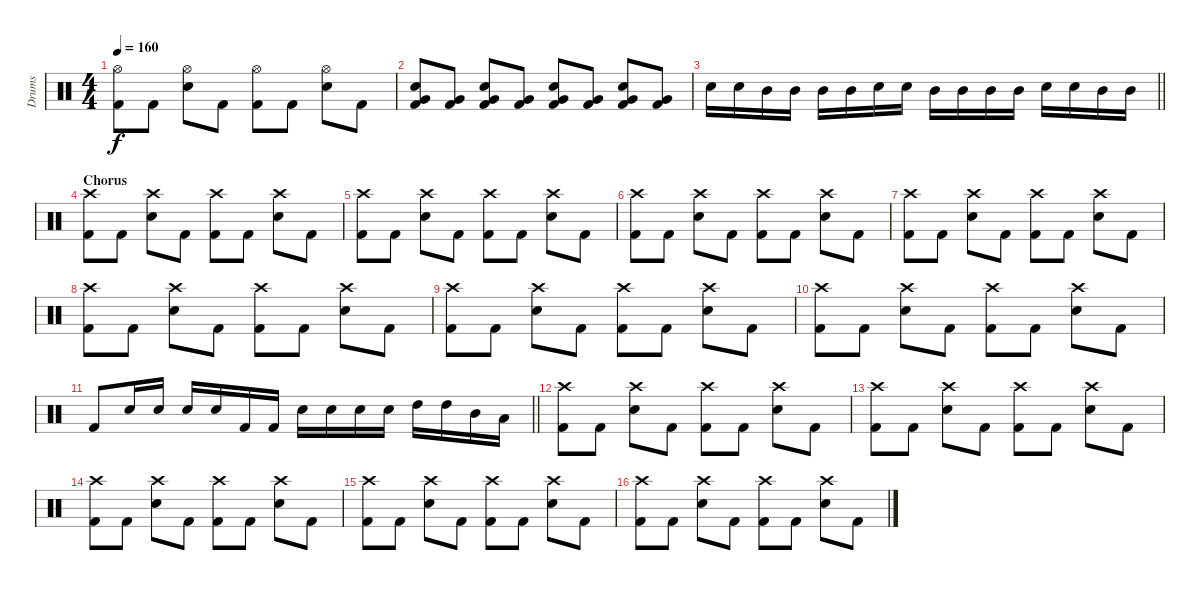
\track ("Drums" "Drums") {instrument percussion}
\staff {score}
\articulation defaults
\ts (4 4)
\tempo 160
\clef neutral
\ks c
("Hi-Hat (open)" "Kick (hit) 2").8{dy f} "Kick (hit) 2".8 ("Hi-Hat (open)" "Electric Snare (hit)").8 "Kick (hit) 2".8 ("Hi-Hat (open)" "Kick (hit) 2").8 "Kick (hit) 2".8 ("Hi-Hat (open)" "Electric Snare (hit)").8 "Kick (hit) 2".8 |
("Very Low Tom (hit)" "Electric Snare (hit)" "Kick (hit) 2").8 ("Very Low Tom (hit)" "Kick (hit) 2").8 ("Very Low Tom (hit)" "Electric Snare (hit)" "Kick (hit) 2").8 ("Very Low Tom (hit)" "Kick (hit) 2").8 ("Very Low Tom (hit)" "Electric Snare (hit)" "Kick (hit) 2").8 ("Very Low Tom (hit)" "Kick (hit) 2").8 ("Very Low Tom (hit)" "Electric Snare (hit)" "Kick (hit) 2").8 ("Very Low Tom (hit)" "Kick (hit) 2").8 |
\barLineRight lightlight "Electric Snare (hit)".16 "Electric Snare (hit)".16 "Mid Tom (hit)".16 "Mid Tom (hit)".16 "Mid Tom (hit)".16 "Mid Tom (hit)".16 "Electric Snare (hit)".16 "Electric Snare (hit)".16 "Mid Tom (hit)".16 "Mid Tom (hit)".16 "Mid Tom (hit)".16 "Mid Tom (hit)".16 "Electric Snare (hit)".16 "Electric Snare (hit)".16 "Mid Tom (hit)".16 "Mid Tom (hit)".16
|
\section ("" "Chorus")
("Crash high (hit)" "Kick (hit) 2").8 "Kick (hit) 2".8 ("Crash high (hit)" "Electric Snare (hit)").8 "Kick (hit) 2".8 ("Crash high (hit)" "Kick (hit) 2").8 "Kick (hit) 2".8 ("Crash high (hit)" "Electric Snare (hit)").8 "Kick (hit) 2".8 |
("Crash high (hit)" "Kick (hit) 2").8 "Kick (hit) 2".8 ("Crash high (hit)" "Electric Snare (hit)").8 "Kick (hit) 2".8 ("Crash high (hit)" "Kick (hit) 2").8 "Kick (hit) 2".8 ("Crash high (hit)" "Electric Snare (hit)").8 "Kick (hit) 2".8 |
("Crash high (hit)" "Kick (hit) 2").8 "Kick (hit) 2".8 ("Crash high (hit)" "Electric Snare (hit)").8 "Kick (hit) 2".8 ("Crash high (hit)" "Kick (hit) 2").8 "Kick (hit) 2".8 ("Crash high (hit)" "Electric Snare (hit)").8 "Kick (hit) 2".8 |
("Crash high (hit)" "Kick (hit) 2").8 "Kick (hit) 2".8 ("Crash high (hit)" "Electric Snare (hit)").8 "Kick (hit) 2".8 ("Crash high (hit)" "Kick (hit) 2").8 "Kick (hit) 2".8 ("Crash high (hit)" "Electric Snare (hit)").8 "Kick (hit) 2".8 |
("Crash high (hit)" "Kick (hit) 2").8 "Kick (hit) 2".8 ("Crash high (hit)" "Electric Snare (hit)").8 "Kick (hit) 2".8 ("Crash high (hit)" "Kick (hit) 2").8 "Kick (hit) 2".8 ("Crash high (hit)" "Electric Snare (hit)").8 "Kick (hit) 2".8 |
("Crash high (hit)" "Kick (hit) 2").8 "Kick (hit) 2".8 ("Crash high (hit)" "Electric Snare (hit)").8 "Kick (hit) 2".8 ("Crash high (hit)" "Kick (hit) 2").8 "Kick (hit) 2".8 ("Crash high (hit)" "Electric Snare (hit)").8 "Kick (hit) 2".8 |
("Crash high (hit)" "Kick (hit) 2").8 "Kick (hit) 2".8 ("Crash high (hit)" "Electric Snare (hit)").8 "Kick (hit) 2".8 ("Crash high (hit)" "Kick (hit) 2").8 "Kick (hit) 2".8 ("Crash high (hit)" "Electric Snare (hit)").8 "Kick (hit) 2".8 |
\barLineRight lightlight "Kick (hit) 2".8 "Electric Snare (hit)".16 "Electric Snare (hit)".16 "Electric Snare (hit)".16 "Electric Snare (hit)".16 "Kick (hit) 2".16 "Kick (hit) 2".16 "Electric Snare (hit)".16 "Electric Snare (hit)".16 "Electric Snare (hit)".16 "Electric Snare (hit)".16 "High Tom (hit)".16 "High Tom (hit)".16 "Mid Tom (hit)".16 "Low Tom (hit)".16
|
("Crash high (hit)" "Kick (hit) 2").8 "Kick (hit) 2".8 ("Crash high (hit)" "Electric Snare (hit)").8 "Kick (hit) 2".8 ("Crash high (hit)" "Kick (hit) 2").8 "Kick (hit) 2".8 ("Crash high (hit)" "Electric Snare (hit)").8 "Kick (hit) 2".8 |
("Crash high (hit)" "Kick (hit) 2").8 "Kick (hit) 2".8 ("Crash high (hit)" "Electric Snare (hit)").8 "Kick (hit) 2".8 ("Crash high (hit)" "Kick (hit) 2").8 "Kick (hit) 2".8 ("Crash high (hit)" "Electric Snare (hit)").8 "Kick (hit) 2".8 |
("Crash high (hit)" "Kick (hit) 2").8 "Kick (hit) 2".8 ("Crash high (hit)" "Electric Snare (hit)").8 "Kick (hit) 2".8 ("Crash high (hit)" "Kick (hit) 2").8 "Kick (hit) 2".8 ("Crash high (hit)" "Electric Snare (hit)").8 "Kick (hit) 2".8 |
("Crash high (hit)" "Kick (hit) 2").8 "Kick (hit) 2".8 ("Crash high (hit)" "Electric Snare (hit)").8 "Kick (hit) 2".8 ("Crash high (hit)" "Kick (hit) 2").8 "Kick (hit) 2".8 ("Crash high (hit)" "Electric Snare (hit)").8 "Kick (hit) 2".8 |
("Crash high (hit)" "Kick (hit) 2").8 "Kick (hit) 2".8 ("Crash high (hit)" "Electric Snare (hit)").8 "Kick (hit) 2".8 ("Crash high (hit)" "Kick (hit) 2").8 "Kick (hit) 2".8 ("Crash high (hit)" "Electric Snare (hit)").8 "Kick (hit) 2".8
